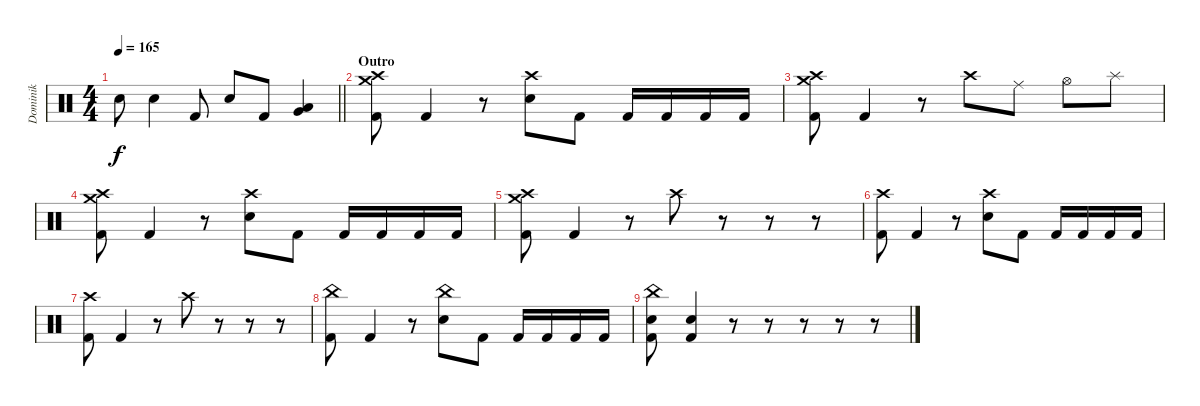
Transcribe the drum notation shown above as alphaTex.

\track ("Dominik" "Dominik") {instrument percussion}
\staff {score}
\articulation defaults
\ts (4 4)
\tempo 165
\clef neutral
\barLineRight lightlight
\ks c "Electric Snare (hit)".8{dy f} "Electric Snare (hit)".4 "Kick (hit) 2".8 "Electric Snare (hit)".8 "Kick (hit) 2".8
("Low Floor Tom (hit)" "Very Low Tom (hit)").4 |
\section ("" "Outro")
("Crash high (hit)" "Crash medium (hit)" "Kick (hit) 2").8 "Kick (hit) 2".4 r.8 ("Crash high (hit)" "Electric Snare (hit)").8 "Kick (hit) 2".8 "Kick (hit) 2".16 "Kick (hit) 2".16 "Kick (hit) 2".16 "Kick (hit) 2".16 |
("Crash high (hit)" "Crash medium (hit)" "Kick (hit) 2").8 "Kick (hit) 2".4 r.8 "Crash high (hit)".8 "Ride (middle)".8 "Hi-Hat (open)".8 "Splash (hit)".8 |
("Crash high (hit)" "Crash medium (hit)" "Kick (hit) 2").8 "Kick (hit) 2".4 r.8 ("Crash high (hit)" "Electric Snare (hit)").8 "Kick (hit) 2".8 "Kick (hit) 2".16 "Kick (hit) 2".16 "Kick (hit) 2".16 "Kick (hit) 2".16 |
("Crash high (hit)" "Crash medium (hit)" "Kick (hit) 2").8 "Kick (hit) 2".4 r.8 "Crash high (hit)".8 r.8 r.8 r.8 |
("Crash high (hit)" "Kick (hit) 2").8 "Kick (hit) 2".4 r.8 ("Crash high (hit)" "Electric Snare (hit)").8 "Kick (hit) 2".8 "Kick (hit) 2".16 "Kick (hit) 2".16 "Kick (hit) 2".16 "Kick (hit) 2".16 |
("Crash high (hit)" "Kick (hit) 2").8 "Kick (hit) 2".4 r.8 "Crash high (hit)".8 r.8 r.8 r.8 |
("China (hit)" "Kick (hit) 2").8 "Kick (hit) 2".4 r.8 ("China (hit)" "Electric Snare (hit)").8 "Kick (hit) 2".8 "Kick (hit) 2".16 "Kick (hit) 2".16 "Kick (hit) 2".16 "Kick (hit) 2".16 |
("China (hit)" "Electric Snare (hit)" "Kick (hit) 2").8 ("Electric Snare (hit)" "Kick (hit) 2").4 r.8 r.8 r.8 r.8 r.8
